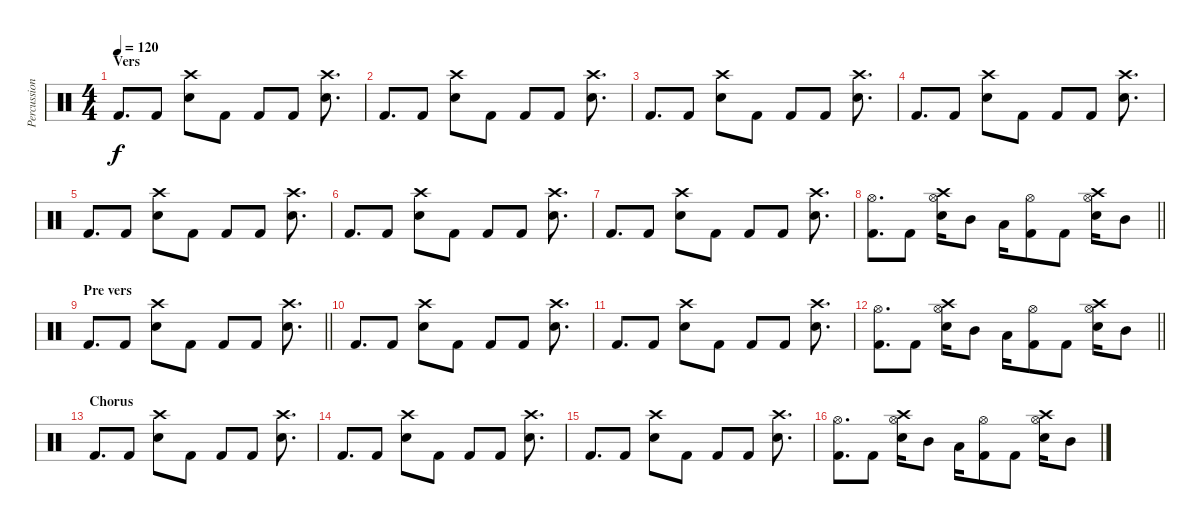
\track ("Percussion" "Percussion") {instrument percussion}
\staff {score}
\articulation defaults
\ts (4 4)
\section ("" "Vers")
\tempo 120
\clef neutral
\ks c "Kick (hit) 2".8{d dy f} "Kick (hit) 2".8
("Crash high (hit)" "Electric Snare (hit)").8 "Kick (hit) 2".8 "Kick (hit) 2".8 "Kick (hit) 2".8 ("Crash high (hit)" "Electric Snare (hit)").8{d} |
"Kick (hit) 2".8{d} "Kick (hit) 2".8 ("Crash high (hit)" "Electric Snare (hit)").8 "Kick (hit) 2".8 "Kick (hit) 2".8 "Kick (hit) 2".8 ("Crash high (hit)" "Electric Snare (hit)").8{d} |
"Kick (hit) 2".8{d} "Kick (hit) 2".8 ("Crash high (hit)" "Electric Snare (hit)").8 "Kick (hit) 2".8 "Kick (hit) 2".8 "Kick (hit) 2".8 ("Crash high (hit)" "Electric Snare (hit)").8{d} |
"Kick (hit) 2".8{d} "Kick (hit) 2".8 ("Crash high (hit)" "Electric Snare (hit)").8 "Kick (hit) 2".8 "Kick (hit) 2".8 "Kick (hit) 2".8 ("Crash high (hit)" "Electric Snare (hit)").8{d} |
"Kick (hit) 2".8{d} "Kick (hit) 2".8 ("Crash high (hit)" "Electric Snare (hit)").8 "Kick (hit) 2".8 "Kick (hit) 2".8 "Kick (hit) 2".8 ("Crash high (hit)" "Electric Snare (hit)").8{d} |
"Kick (hit) 2".8{d} "Kick (hit) 2".8 ("Crash high (hit)" "Electric Snare (hit)").8 "Kick (hit) 2".8 "Kick (hit) 2".8 "Kick (hit) 2".8 ("Crash high (hit)" "Electric Snare (hit)").8{d} |
"Kick (hit) 2".8{d} "Kick (hit) 2".8 ("Crash high (hit)" "Electric Snare (hit)").8 "Kick (hit) 2".8 "Kick (hit) 2".8 "Kick (hit) 2".8 ("Crash high (hit)" "Electric Snare (hit)").8{d} |
\barLineRight lightlight
("Hi-Hat (open)" "Kick (hit) 2").8{d} "Kick (hit) 2".8 ("Hi-Hat (open)" "Crash high (hit)" "Electric Snare (hit)").16 "Mid Tom (hit)".8 "Low Tom (hit)".16 ("Hi-Hat (open)" "Kick (hit) 2").8 "Kick (hit) 2".8 ("Hi-Hat (open)" "Crash high (hit)" "Electric Snare (hit)").16 "Mid Tom (hit)".8 |
\section ("" "Pre vers")
\barLineRight lightlight "Kick (hit) 2".8{d} "Kick (hit) 2".8
("Crash high (hit)" "Electric Snare (hit)").8 "Kick (hit) 2".8 "Kick (hit) 2".8 "Kick (hit) 2".8 ("Crash high (hit)" "Electric Snare (hit)").8{d} |
"Kick (hit) 2".8{d} "Kick (hit) 2".8 ("Crash high (hit)" "Electric Snare (hit)").8 "Kick (hit) 2".8 "Kick (hit) 2".8 "Kick (hit) 2".8 ("Crash high (hit)" "Electric Snare (hit)").8{d} |
"Kick (hit) 2".8{d} "Kick (hit) 2".8 ("Crash high (hit)" "Electric Snare (hit)").8 "Kick (hit) 2".8 "Kick (hit) 2".8 "Kick (hit) 2".8 ("Crash high (hit)" "Electric Snare (hit)").8{d} |
\barLineRight lightlight
("Hi-Hat (open)" "Kick (hit) 2").8{d} "Kick (hit) 2".8 ("Hi-Hat (open)" "Crash high (hit)" "Electric Snare (hit)").16 "Mid Tom (hit)".8 "Low Tom (hit)".16 ("Hi-Hat (open)" "Kick (hit) 2").8 "Kick (hit) 2".8 ("Hi-Hat (open)" "Crash high (hit)" "Electric Snare (hit)").16 "Mid Tom (hit)".8 |
\section ("" "Chorus")
"Kick (hit) 2".8{d} "Kick (hit) 2".8 ("Crash high (hit)" "Electric Snare (hit)").8 "Kick (hit) 2".8 "Kick (hit) 2".8 "Kick (hit) 2".8 ("Crash high (hit)" "Electric Snare (hit)").8{d} |
"Kick (hit) 2".8{d} "Kick (hit) 2".8 ("Crash high (hit)" "Electric Snare (hit)").8 "Kick (hit) 2".8 "Kick (hit) 2".8 "Kick (hit) 2".8 ("Crash high (hit)" "Electric Snare (hit)").8{d} |
"Kick (hit) 2".8{d} "Kick (hit) 2".8 ("Crash high (hit)" "Electric Snare (hit)").8 "Kick (hit) 2".8 "Kick (hit) 2".8 "Kick (hit) 2".8 ("Crash high (hit)" "Electric Snare (hit)").8{d} |
("Hi-Hat (open)" "Kick (hit) 2").8{d} "Kick (hit) 2".8 ("Hi-Hat (open)" "Crash high (hit)" "Electric Snare (hit)").16 "Mid Tom (hit)".8 "Low Tom (hit)".16 ("Hi-Hat (open)" "Kick (hit) 2").8 "Kick (hit) 2".8 ("Hi-Hat (open)" "Crash high (hit)" "Electric Snare (hit)").16 "Mid Tom (hit)".8
